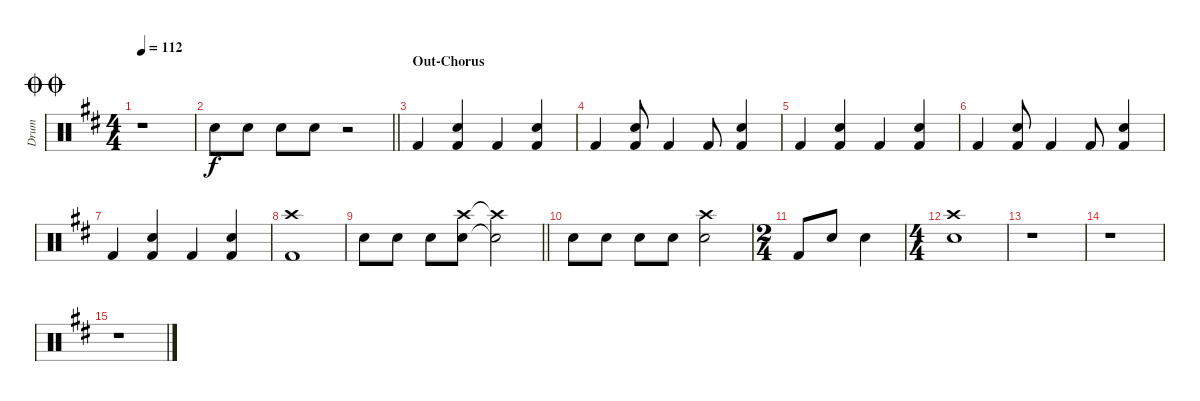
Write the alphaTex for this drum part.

\track ("Drum" "Drum") {instrument percussion}
\staff {score}
\articulation defaults
\ts (4 4)
\jump doublecoda
\tempo 112
\clef neutral
\ks d
r.1{dy f} |
\barLineRight lightlight "Electric Snare (hit)".8 "Electric Snare (hit)".8 "Electric Snare (hit)".8 "Electric Snare (hit)".8
r.2 |
\section ("" "Out-Chorus")
"Kick (hit) 2".4 ("Snare (hit) 2" "Kick (hit) 2").4 "Kick (hit) 2".4 ("Snare (hit) 2" "Kick (hit) 2").4 |
"Kick (hit) 2".4 ("Snare (hit) 2" "Kick (hit) 2").8 "Kick (hit) 2".4 "Kick (hit) 2".8 ("Snare (hit) 2" "Kick (hit) 2").4 |
"Kick (hit) 2".4 ("Snare (hit) 2" "Kick (hit) 2").4 "Kick (hit) 2".4 ("Snare (hit) 2" "Kick (hit) 2").4 |
"Kick (hit) 2".4 ("Snare (hit) 2" "Kick (hit) 2").8 "Kick (hit) 2".4 "Kick (hit) 2".8 ("Snare (hit) 2" "Kick (hit) 2").4 |
"Kick (hit) 2".4 ("Snare (hit) 2" "Kick (hit) 2").4 "Kick (hit) 2".4 ("Snare (hit) 2" "Kick (hit) 2").4 |
("Crash high (hit)" "Kick (hit) 2").1 |
\barLineRight lightlight "Electric Snare (hit)".8 "Electric Snare (hit)".8 "Electric Snare (hit)".8
("Crash high (hit)" "Electric Snare (hit)").8 ("Crash high (hit)"{t} "Electric Snare (hit)"{t}).2 |
"Electric Snare (hit)".8 "Electric Snare (hit)".8 "Electric Snare (hit)".8 "Electric Snare (hit)".8 ("Crash high (hit)" "Electric Snare (hit)").2 |
\ts (2 4)
"Kick (hit) 2".8 "Electric Snare (hit)".8 "Electric Snare (hit)".4 |
\ts (4 4)
("Crash high (hit)" "Electric Snare (hit)").1 |
r.1 |
r.1 |
r.1
